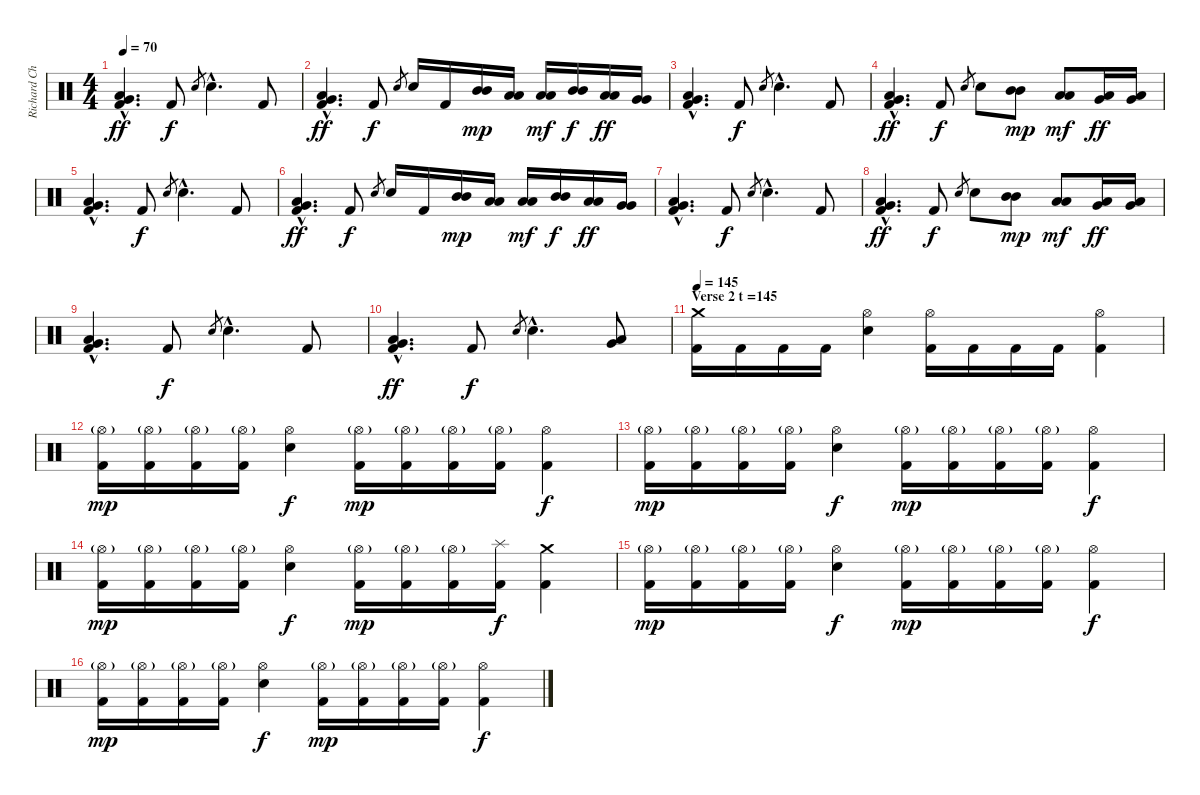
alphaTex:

\track ("Richard Christy" "Richard Ch") {instrument percussion}
\staff {score}
\articulation defaults
\ts (4 4)
\tempo 70
\clef neutral
\ks c
("Low Floor Tom (hit)"{hac} "Very Low Tom (hit)"{hac} "Kick (hit) 2"{hac}).4{d dy ff} "Kick (hit) 2".8{dy f} "Electric Snare (hit)".8{gr} "Electric Snare (hit)"{hac}.4{d} "Kick (hit) 2".8 |
("Low Floor Tom (hit)"{hac} "Very Low Tom (hit)"{hac} "Kick (hit) 2"{hac}).4{d dy ff} "Kick (hit) 2".8{dy f} "Electric Snare (hit)".8{gr} "Electric Snare (hit)".16 "Kick (hit) 2".16 ("Mid Tom (hit)" "Mid Tom (hit)").16{dy mp} ("Low Tom (hit)" "Low Tom (hit)").16 ("Low Tom (hit)" "Low Tom (hit)").16{dy mf} ("Mid Tom (hit)" "Mid Tom (hit)").16{dy f} ("Low Tom (hit)" "Low Tom (hit)").16{dy ff} ("Very Low Tom (hit)" "Very Low Tom (hit)").16 |
("Low Floor Tom (hit)"{hac} "Very Low Tom (hit)"{hac} "Kick (hit) 2"{hac}).4{d} "Kick (hit) 2".8{dy f} "Electric Snare (hit)".8{gr} "Electric Snare (hit)"{hac}.4{d} "Kick (hit) 2".8 |
("Low Floor Tom (hit)"{hac} "Very Low Tom (hit)"{hac} "Kick (hit) 2"{hac}).4{d dy ff} "Kick (hit) 2".8{dy f} "Electric Snare (hit)".8{gr} "Electric Snare (hit)".8 ("Mid Tom (hit)" "Mid Tom (hit)").8{dy mp} ("Low Tom (hit)" "Low Tom (hit)").8{dy mf} ("Low Tom (hit)" "Very Low Tom (hit)").16{dy ff} ("Low Tom (hit)" "Very Low Tom (hit)").16 |
("Low Floor Tom (hit)"{hac} "Very Low Tom (hit)"{hac} "Kick (hit) 2"{hac}).4{d} "Kick (hit) 2".8{dy f} "Electric Snare (hit)".8{gr} "Electric Snare (hit)"{hac}.4{d} "Kick (hit) 2".8 |
("Low Floor Tom (hit)"{hac} "Very Low Tom (hit)"{hac} "Kick (hit) 2"{hac}).4{d dy ff} "Kick (hit) 2".8{dy f} "Electric Snare (hit)".8{gr} "Electric Snare (hit)".16 "Kick (hit) 2".16 ("Mid Tom (hit)" "Mid Tom (hit)").16{dy mp} ("Low Tom (hit)" "Low Tom (hit)").16 ("Low Tom (hit)" "Low Tom (hit)").16{dy mf} ("Mid Tom (hit)" "Mid Tom (hit)").16{dy f} ("Low Tom (hit)" "Low Tom (hit)").16{dy ff} ("Very Low Tom (hit)" "Very Low Tom (hit)").16 |
("Low Floor Tom (hit)"{hac} "Very Low Tom (hit)"{hac} "Kick (hit) 2"{hac}).4{d} "Kick (hit) 2".8{dy f} "Electric Snare (hit)".8{gr} "Electric Snare (hit)"{hac}.4{d} "Kick (hit) 2".8 |
("Low Floor Tom (hit)"{hac} "Very Low Tom (hit)"{hac} "Kick (hit) 2"{hac}).4{d dy ff} "Kick (hit) 2".8{dy f} "Electric Snare (hit)".8{gr} "Electric Snare (hit)".8 ("Mid Tom (hit)" "Mid Tom (hit)").8{dy mp} ("Low Tom (hit)" "Low Tom (hit)").8{dy mf} ("Low Tom (hit)" "Very Low Tom (hit)").16{dy ff} ("Low Tom (hit)" "Very Low Tom (hit)").16 |
("Low Floor Tom (hit)"{hac} "Very Low Tom (hit)"{hac} "Kick (hit) 2"{hac}).4{d} "Kick (hit) 2".8{dy f} "Electric Snare (hit)".8{gr} "Electric Snare (hit)"{hac}.4{d} "Kick (hit) 2".8 |
("Low Floor Tom (hit)"{hac} "Very Low Tom (hit)"{hac} "Kick (hit) 2"{hac}).4{d dy ff} "Kick (hit) 2".8{dy f} "Electric Snare (hit)".8{gr} "Electric Snare (hit)"{hac}.4{d} ("Low Tom (hit)" "Very Low Tom (hit)").8 |
\section ("" "Verse 2 t =145")
\tempo 145
("Crash medium (hit)" "Kick (hit) 2").16 "Kick (hit) 2".16 "Kick (hit) 2".16 "Kick (hit) 2".16 ("Hi-Hat (open)" "Electric Snare (hit)").4 ("Hi-Hat (open)" "Kick (hit) 2").16 "Kick (hit) 2".16 "Kick (hit) 2".16 "Kick (hit) 2".16 ("Hi-Hat (open)" "Kick (hit) 2").4 |
("Hi-Hat (open)"{g} "Kick (hit) 2").16{dy mp} ("Hi-Hat (open)"{g} "Kick (hit) 2").16 ("Hi-Hat (open)"{g} "Kick (hit) 2").16 ("Hi-Hat (open)"{g} "Kick (hit) 2").16 ("Hi-Hat (open)" "Electric Snare (hit)").4{dy f} ("Hi-Hat (open)"{g} "Kick (hit) 2").16{dy mp} ("Hi-Hat (open)"{g} "Kick (hit) 2").16 ("Hi-Hat (open)"{g} "Kick (hit) 2").16 ("Hi-Hat (open)"{g} "Kick (hit) 2").16 ("Hi-Hat (open)" "Kick (hit) 2").4{dy f} |
("Hi-Hat (open)"{g} "Kick (hit) 2").16{dy mp} ("Hi-Hat (open)"{g} "Kick (hit) 2").16 ("Hi-Hat (open)"{g} "Kick (hit) 2").16 ("Hi-Hat (open)"{g} "Kick (hit) 2").16 ("Hi-Hat (open)" "Electric Snare (hit)").4{dy f} ("Hi-Hat (open)"{g} "Kick (hit) 2").16{dy mp} ("Hi-Hat (open)"{g} "Kick (hit) 2").16 ("Hi-Hat (open)"{g} "Kick (hit) 2").16 ("Hi-Hat (open)"{g} "Kick (hit) 2").16 ("Hi-Hat (open)" "Kick (hit) 2").4{dy f} |
("Hi-Hat (open)"{g} "Kick (hit) 2").16{dy mp} ("Hi-Hat (open)"{g} "Kick (hit) 2").16 ("Hi-Hat (open)"{g} "Kick (hit) 2").16 ("Hi-Hat (open)"{g} "Kick (hit) 2").16 ("Hi-Hat (open)" "Electric Snare (hit)").4{dy f} ("Hi-Hat (open)"{g} "Kick (hit) 2").16{dy mp} ("Hi-Hat (open)"{g} "Kick (hit) 2").16 ("Hi-Hat (open)"{g} "Kick (hit) 2").16 ("Splash (hit)" "Kick (hit) 2").16{dy f} ("Crash medium (hit)" "Kick (hit) 2").4 |
("Hi-Hat (open)"{g} "Kick (hit) 2").16{dy mp} ("Hi-Hat (open)"{g} "Kick (hit) 2").16 ("Hi-Hat (open)"{g} "Kick (hit) 2").16 ("Hi-Hat (open)"{g} "Kick (hit) 2").16 ("Hi-Hat (open)" "Electric Snare (hit)").4{dy f} ("Hi-Hat (open)"{g} "Kick (hit) 2").16{dy mp} ("Hi-Hat (open)"{g} "Kick (hit) 2").16 ("Hi-Hat (open)"{g} "Kick (hit) 2").16 ("Hi-Hat (open)"{g} "Kick (hit) 2").16 ("Hi-Hat (open)" "Kick (hit) 2").4{dy f} |
("Hi-Hat (open)"{g} "Kick (hit) 2").16{dy mp} ("Hi-Hat (open)"{g} "Kick (hit) 2").16 ("Hi-Hat (open)"{g} "Kick (hit) 2").16 ("Hi-Hat (open)"{g} "Kick (hit) 2").16 ("Hi-Hat (open)" "Electric Snare (hit)").4{dy f} ("Hi-Hat (open)"{g} "Kick (hit) 2").16{dy mp} ("Hi-Hat (open)"{g} "Kick (hit) 2").16 ("Hi-Hat (open)"{g} "Kick (hit) 2").16 ("Hi-Hat (open)"{g} "Kick (hit) 2").16 ("Hi-Hat (open)" "Kick (hit) 2").4{dy f}
